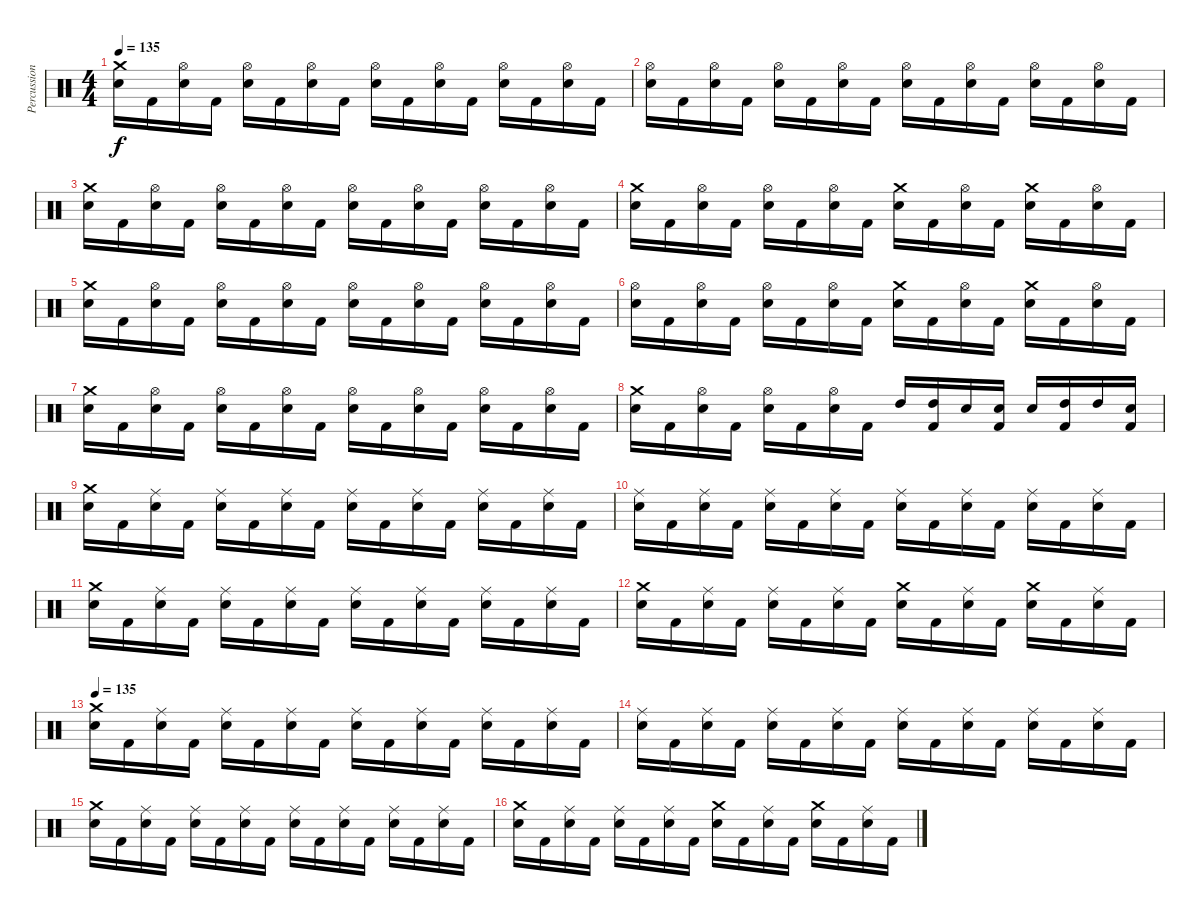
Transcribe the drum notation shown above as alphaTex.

\track ("Percussion" "Percussion") {instrument percussion}
\staff {score}
\articulation defaults
\ts (4 4)
\tempo 135
\clef neutral
\ks c
("Crash medium (hit)" "Snare (hit) 2").16{dy f} "Kick (hit) 2".16 ("Hi-Hat (open)" "Snare (hit) 2").16 "Kick (hit) 2".16 ("Hi-Hat (open)" "Snare (hit) 2").16 "Kick (hit) 2".16 ("Hi-Hat (open)" "Snare (hit) 2").16 "Kick (hit) 2".16 ("Hi-Hat (open)" "Snare (hit) 2").16 "Kick (hit) 2".16 ("Hi-Hat (open)" "Snare (hit) 2").16 "Kick (hit) 2".16 ("Hi-Hat (open)" "Snare (hit) 2").16 "Kick (hit) 2".16 ("Hi-Hat (open)" "Snare (hit) 2").16 "Kick (hit) 2".16 |
("Hi-Hat (open)" "Snare (hit) 2").16 "Kick (hit) 2".16 ("Hi-Hat (open)" "Snare (hit) 2").16 "Kick (hit) 2".16 ("Hi-Hat (open)" "Snare (hit) 2").16 "Kick (hit) 2".16 ("Hi-Hat (open)" "Snare (hit) 2").16 "Kick (hit) 2".16 ("Hi-Hat (open)" "Snare (hit) 2").16 "Kick (hit) 2".16 ("Hi-Hat (open)" "Snare (hit) 2").16 "Kick (hit) 2".16 ("Hi-Hat (open)" "Snare (hit) 2").16 "Kick (hit) 2".16 ("Hi-Hat (open)" "Snare (hit) 2").16 "Kick (hit) 2".16 |
("Crash medium (hit)" "Snare (hit) 2").16 "Kick (hit) 2".16 ("Hi-Hat (open)" "Snare (hit) 2").16 "Kick (hit) 2".16 ("Hi-Hat (open)" "Snare (hit) 2").16 "Kick (hit) 2".16 ("Hi-Hat (open)" "Snare (hit) 2").16 "Kick (hit) 2".16 ("Hi-Hat (open)" "Snare (hit) 2").16 "Kick (hit) 2".16 ("Hi-Hat (open)" "Snare (hit) 2").16 "Kick (hit) 2".16 ("Hi-Hat (open)" "Snare (hit) 2").16 "Kick (hit) 2".16 ("Hi-Hat (open)" "Snare (hit) 2").16 "Kick (hit) 2".16 |
("Crash medium (hit)" "Snare (hit) 2").16 "Kick (hit) 2".16 ("Hi-Hat (open)" "Snare (hit) 2").16 "Kick (hit) 2".16 ("Hi-Hat (open)" "Snare (hit) 2").16 "Kick (hit) 2".16 ("Hi-Hat (open)" "Snare (hit) 2").16 "Kick (hit) 2".16 ("Crash medium (hit)" "Snare (hit) 2").16 "Kick (hit) 2".16 ("Hi-Hat (open)" "Snare (hit) 2").16 "Kick (hit) 2".16 ("Crash medium (hit)" "Snare (hit) 2").16 "Kick (hit) 2".16 ("Hi-Hat (open)" "Snare (hit) 2").16 "Kick (hit) 2".16 |
("Crash medium (hit)" "Snare (hit) 2").16 "Kick (hit) 2".16 ("Hi-Hat (open)" "Snare (hit) 2").16 "Kick (hit) 2".16 ("Hi-Hat (open)" "Snare (hit) 2").16 "Kick (hit) 2".16 ("Hi-Hat (open)" "Snare (hit) 2").16 "Kick (hit) 2".16 ("Hi-Hat (open)" "Snare (hit) 2").16 "Kick (hit) 2".16 ("Hi-Hat (open)" "Snare (hit) 2").16 "Kick (hit) 2".16 ("Hi-Hat (open)" "Snare (hit) 2").16 "Kick (hit) 2".16 ("Hi-Hat (open)" "Snare (hit) 2").16 "Kick (hit) 2".16 |
("Hi-Hat (open)" "Snare (hit) 2").16 "Kick (hit) 2".16 ("Hi-Hat (open)" "Snare (hit) 2").16 "Kick (hit) 2".16 ("Hi-Hat (open)" "Snare (hit) 2").16 "Kick (hit) 2".16 ("Hi-Hat (open)" "Snare (hit) 2").16 "Kick (hit) 2".16 ("Crash medium (hit)" "Snare (hit) 2").16 "Kick (hit) 2".16 ("Hi-Hat (open)" "Snare (hit) 2").16 "Kick (hit) 2".16 ("Crash medium (hit)" "Snare (hit) 2").16 "Kick (hit) 2".16 ("Hi-Hat (open)" "Snare (hit) 2").16 "Kick (hit) 2".16 |
("Crash medium (hit)" "Snare (hit) 2").16 "Kick (hit) 2".16 ("Hi-Hat (open)" "Snare (hit) 2").16 "Kick (hit) 2".16 ("Hi-Hat (open)" "Snare (hit) 2").16 "Kick (hit) 2".16 ("Hi-Hat (open)" "Snare (hit) 2").16 "Kick (hit) 2".16 ("Hi-Hat (open)" "Snare (hit) 2").16 "Kick (hit) 2".16 ("Hi-Hat (open)" "Snare (hit) 2").16 "Kick (hit) 2".16 ("Hi-Hat (open)" "Snare (hit) 2").16 "Kick (hit) 2".16 ("Hi-Hat (open)" "Snare (hit) 2").16 "Kick (hit) 2".16 |
("Crash medium (hit)" "Snare (hit) 2").16 "Kick (hit) 2".16 ("Hi-Hat (open)" "Snare (hit) 2").16 "Kick (hit) 2".16 ("Hi-Hat (open)" "Snare (hit) 2").16 "Kick (hit) 2".16 ("Hi-Hat (open)" "Snare (hit) 2").16 "Kick (hit) 2".16 "High Tom (hit)".16 ("High Tom (hit)" "Kick (hit) 2").16 "Snare (hit) 2".16 ("Snare (hit) 2" "Kick (hit) 2").16 "Snare (hit) 2".16 ("High Tom (hit)" "Kick (hit) 2").16 "High Tom (hit)".16 ("Snare (hit) 2" "Kick (hit) 2").16 |
("Crash medium (hit)" "Snare (hit) 2").16 "Kick (hit) 2".16 ("Ride (middle)" "Snare (hit) 2").16 "Kick (hit) 2".16 ("Ride (middle)" "Snare (hit) 2").16 "Kick (hit) 2".16 ("Ride (middle)" "Snare (hit) 2").16 "Kick (hit) 2".16 ("Ride (middle)" "Snare (hit) 2").16 "Kick (hit) 2".16 ("Ride (middle)" "Snare (hit) 2").16 "Kick (hit) 2".16 ("Ride (middle)" "Snare (hit) 2").16 "Kick (hit) 2".16 ("Ride (middle)" "Snare (hit) 2").16 "Kick (hit) 2".16 |
("Ride (middle)" "Snare (hit) 2").16 "Kick (hit) 2".16 ("Ride (middle)" "Snare (hit) 2").16 "Kick (hit) 2".16 ("Ride (middle)" "Snare (hit) 2").16 "Kick (hit) 2".16 ("Ride (middle)" "Snare (hit) 2").16 "Kick (hit) 2".16 ("Ride (middle)" "Snare (hit) 2").16 "Kick (hit) 2".16 ("Ride (middle)" "Snare (hit) 2").16 "Kick (hit) 2".16 ("Ride (middle)" "Snare (hit) 2").16 "Kick (hit) 2".16 ("Ride (middle)" "Snare (hit) 2").16 "Kick (hit) 2".16 |
("Crash medium (hit)" "Snare (hit) 2").16 "Kick (hit) 2".16 ("Ride (middle)" "Snare (hit) 2").16 "Kick (hit) 2".16 ("Ride (middle)" "Snare (hit) 2").16 "Kick (hit) 2".16 ("Ride (middle)" "Snare (hit) 2").16 "Kick (hit) 2".16 ("Ride (middle)" "Snare (hit) 2").16 "Kick (hit) 2".16 ("Ride (middle)" "Snare (hit) 2").16 "Kick (hit) 2".16 ("Ride (middle)" "Snare (hit) 2").16 "Kick (hit) 2".16 ("Ride (middle)" "Snare (hit) 2").16 "Kick (hit) 2".16 |
("Crash medium (hit)" "Snare (hit) 2").16 "Kick (hit) 2".16 ("Ride (middle)" "Snare (hit) 2").16 "Kick (hit) 2".16 ("Ride (middle)" "Snare (hit) 2").16 "Kick (hit) 2".16 ("Ride (middle)" "Snare (hit) 2").16 "Kick (hit) 2".16 ("Crash medium (hit)" "Snare (hit) 2").16 "Kick (hit) 2".16 ("Ride (middle)" "Snare (hit) 2").16 "Kick (hit) 2".16 ("Crash medium (hit)" "Snare (hit) 2").16 "Kick (hit) 2".16 ("Ride (middle)" "Snare (hit) 2").16 "Kick (hit) 2".16 |
\tempo 135
("Crash medium (hit)" "Snare (hit) 2").16 "Kick (hit) 2".16 ("Ride (middle)" "Snare (hit) 2").16 "Kick (hit) 2".16 ("Ride (middle)" "Snare (hit) 2").16 "Kick (hit) 2".16 ("Ride (middle)" "Snare (hit) 2").16 "Kick (hit) 2".16 ("Ride (middle)" "Snare (hit) 2").16 "Kick (hit) 2".16 ("Ride (middle)" "Snare (hit) 2").16 "Kick (hit) 2".16 ("Ride (middle)" "Snare (hit) 2").16 "Kick (hit) 2".16 ("Ride (middle)" "Snare (hit) 2").16 "Kick (hit) 2".16 |
("Ride (middle)" "Snare (hit) 2").16 "Kick (hit) 2".16 ("Ride (middle)" "Snare (hit) 2").16 "Kick (hit) 2".16 ("Ride (middle)" "Snare (hit) 2").16 "Kick (hit) 2".16 ("Ride (middle)" "Snare (hit) 2").16 "Kick (hit) 2".16 ("Ride (middle)" "Snare (hit) 2").16 "Kick (hit) 2".16 ("Ride (middle)" "Snare (hit) 2").16 "Kick (hit) 2".16 ("Ride (middle)" "Snare (hit) 2").16 "Kick (hit) 2".16 ("Ride (middle)" "Snare (hit) 2").16 "Kick (hit) 2".16 |
("Crash medium (hit)" "Snare (hit) 2").16 "Kick (hit) 2".16 ("Ride (middle)" "Snare (hit) 2").16 "Kick (hit) 2".16 ("Ride (middle)" "Snare (hit) 2").16 "Kick (hit) 2".16 ("Ride (middle)" "Snare (hit) 2").16 "Kick (hit) 2".16 ("Ride (middle)" "Snare (hit) 2").16 "Kick (hit) 2".16 ("Ride (middle)" "Snare (hit) 2").16 "Kick (hit) 2".16 ("Ride (middle)" "Snare (hit) 2").16 "Kick (hit) 2".16 ("Ride (middle)" "Snare (hit) 2").16 "Kick (hit) 2".16 |
("Crash medium (hit)" "Snare (hit) 2").16 "Kick (hit) 2".16 ("Ride (middle)" "Snare (hit) 2").16 "Kick (hit) 2".16 ("Ride (middle)" "Snare (hit) 2").16 "Kick (hit) 2".16 ("Ride (middle)" "Snare (hit) 2").16 "Kick (hit) 2".16 ("Crash medium (hit)" "Snare (hit) 2").16 "Kick (hit) 2".16 ("Ride (middle)" "Snare (hit) 2").16 "Kick (hit) 2".16 ("Crash medium (hit)" "Snare (hit) 2").16 "Kick (hit) 2".16 ("Ride (middle)" "Snare (hit) 2").16 "Kick (hit) 2".16
